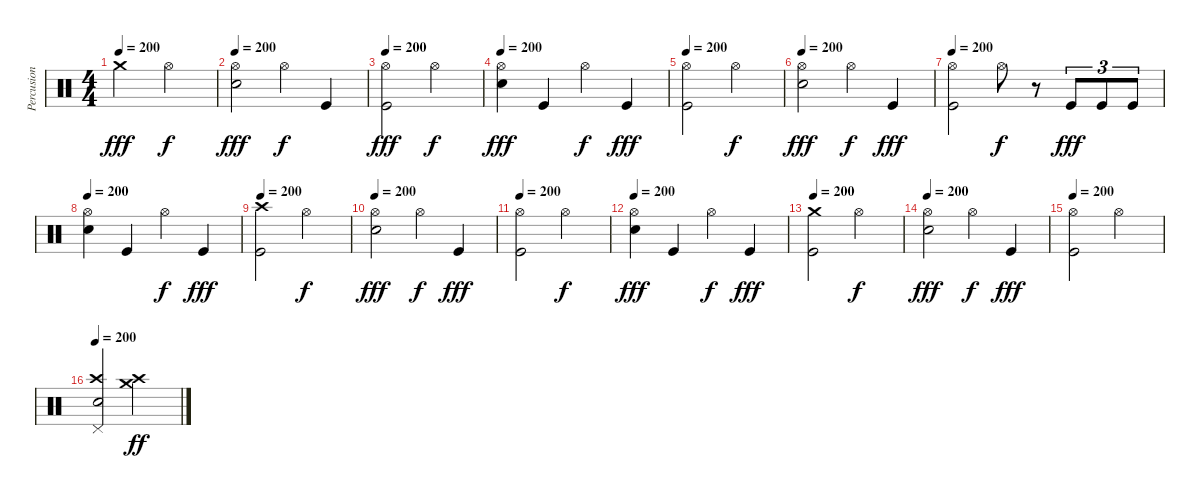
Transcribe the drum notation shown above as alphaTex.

\track ("Percusion" "Percusion") {instrument percussion}
\staff {score}
\articulation defaults
\ts (4 4)
\tempo 200
\clef neutral
\ks c "Crash medium (hit)".2{dy fff} "Hi-Hat (open)".2{dy f}
|
\tempo 200
("Hi-Hat (open)" "Snare (hit) 2").2{dy fff} "Hi-Hat (open)".4{dy f} "Kick (hit)".4 |
\tempo 200
("Hi-Hat (open)" "Kick (hit)").2{dy fff} "Hi-Hat (open)".2{dy f} |
\tempo 200
("Hi-Hat (open)" "Snare (hit) 2").4{dy fff} "Kick (hit)".4 "Hi-Hat (open)".4{dy f} "Kick (hit)".4{dy fff} |
\tempo 200
("Hi-Hat (open)" "Kick (hit)").2 "Hi-Hat (open)".2{dy f} |
\tempo 200
("Hi-Hat (open)" "Snare (hit) 2").2{dy fff} "Hi-Hat (open)".4{dy f} "Kick (hit)".4{dy fff} |
\tempo 200
("Hi-Hat (open)" "Kick (hit)").2 "Hi-Hat (open)".8{dy f} r.8 "Kick (hit)".8{tu (3 2) dy fff} "Kick (hit)".8{tu (3 2)} "Kick (hit)".8{tu (3 2)} |
\tempo 200
("Hi-Hat (open)" "Snare (hit) 2").4 "Kick (hit)".4 "Hi-Hat (open)".4{dy f} "Kick (hit)".4{dy fff} |
\tempo 200
("Crash high (hit)" "Kick (hit)").2 "Hi-Hat (open)".2{dy f} |
\tempo 200
("Hi-Hat (open)" "Snare (hit) 2").2{dy fff} "Hi-Hat (open)".4{dy f} "Kick (hit)".4{dy fff} |
\tempo 200
("Hi-Hat (open)" "Kick (hit)").2 "Hi-Hat (open)".2{dy f} |
\tempo 200
("Hi-Hat (open)" "Snare (hit) 2").4{dy fff} "Kick (hit)".4 "Hi-Hat (open)".4{dy f} "Kick (hit)".4{dy fff} |
\tempo 200
("Crash medium (hit)" "Kick (hit)").2 "Hi-Hat (open)".2{dy f} |
\tempo 200
("Hi-Hat (open)" "Snare (hit) 2").2{dy fff} "Hi-Hat (open)".4{dy f} "Kick (hit)".4{dy fff} |
\tempo 200
("Hi-Hat (open)" "Kick (hit)").2 "Hi-Hat (open)".2 |
\tempo 200
("Crash high (hit)" "Pedal Hi-Hat (hit)" "Snare (hit) 2").2 ("Crash medium (hit)" "Crash high (hit)").2{dy ff}
